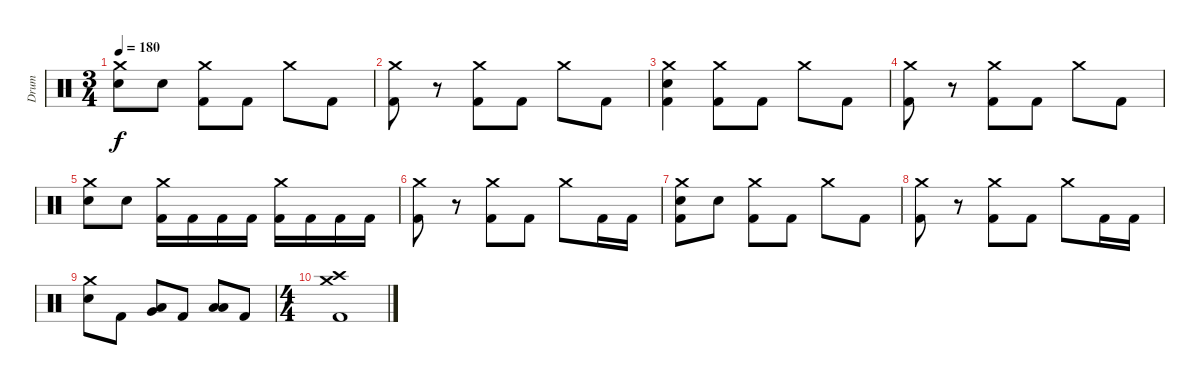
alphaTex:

\track ("Drum" "Drum") {instrument percussion}
\staff {score}
\articulation defaults
\ts (3 4)
\tempo 180
\clef neutral
\ks c
("Crash medium (hit)" "Snare (hit) 2").8{dy f} "Snare (hit) 2".8 ("Crash medium (hit)" "Kick (hit) 2").8 "Kick (hit) 2".8 "Crash medium (hit)".8 "Kick (hit) 2".8 |
("Crash medium (hit)" "Kick (hit) 2").8 r.8 ("Crash medium (hit)" "Kick (hit) 2").8 "Kick (hit) 2".8 "Crash medium (hit)".8 "Kick (hit) 2".8 |
("Crash medium (hit)" "Snare (hit) 2" "Kick (hit) 2").4 ("Crash medium (hit)" "Kick (hit) 2").8 "Kick (hit) 2".8 "Crash medium (hit)".8 "Kick (hit) 2".8 |
("Crash medium (hit)" "Kick (hit) 2").8 r.8 ("Crash medium (hit)" "Kick (hit) 2").8 "Kick (hit) 2".8 "Crash medium (hit)".8 "Kick (hit) 2".8 |
("Crash medium (hit)" "Snare (hit) 2").8 "Snare (hit) 2".8 ("Crash medium (hit)" "Kick (hit) 2").16 "Kick (hit) 2".16 "Kick (hit) 2".16 "Kick (hit) 2".16 ("Crash medium (hit)" "Kick (hit) 2").16 "Kick (hit) 2".16 "Kick (hit) 2".16 "Kick (hit) 2".16 |
("Crash medium (hit)" "Kick (hit) 2").8 r.8 ("Crash medium (hit)" "Kick (hit) 2").8 "Kick (hit) 2".8 "Crash medium (hit)".8 "Kick (hit) 2".16 "Kick (hit) 2".16 |
("Crash medium (hit)" "Snare (hit) 2" "Kick (hit) 2").8 "Snare (hit) 2".8 ("Crash medium (hit)" "Kick (hit) 2").8 "Kick (hit) 2".8 "Crash medium (hit)".8 "Kick (hit) 2".8 |
("Crash medium (hit)" "Kick (hit) 2").8 r.8 ("Crash medium (hit)" "Kick (hit) 2").8 "Kick (hit) 2".8 "Crash medium (hit)".8 "Kick (hit) 2".16 "Kick (hit) 2".16 |
("Crash medium (hit)" "Snare (hit) 2").8 "Kick (hit) 2".8 ("Low Tom (hit)" "Very Low Tom (hit)").8 "Kick (hit) 2".8 ("Low Tom (hit)" "Low Floor Tom (hit)").8 "Kick (hit) 2".8 |
\ts (4 4)
("Crash medium (hit)" "Crash high (hit)" "Kick (hit) 2").1{volume 0}
